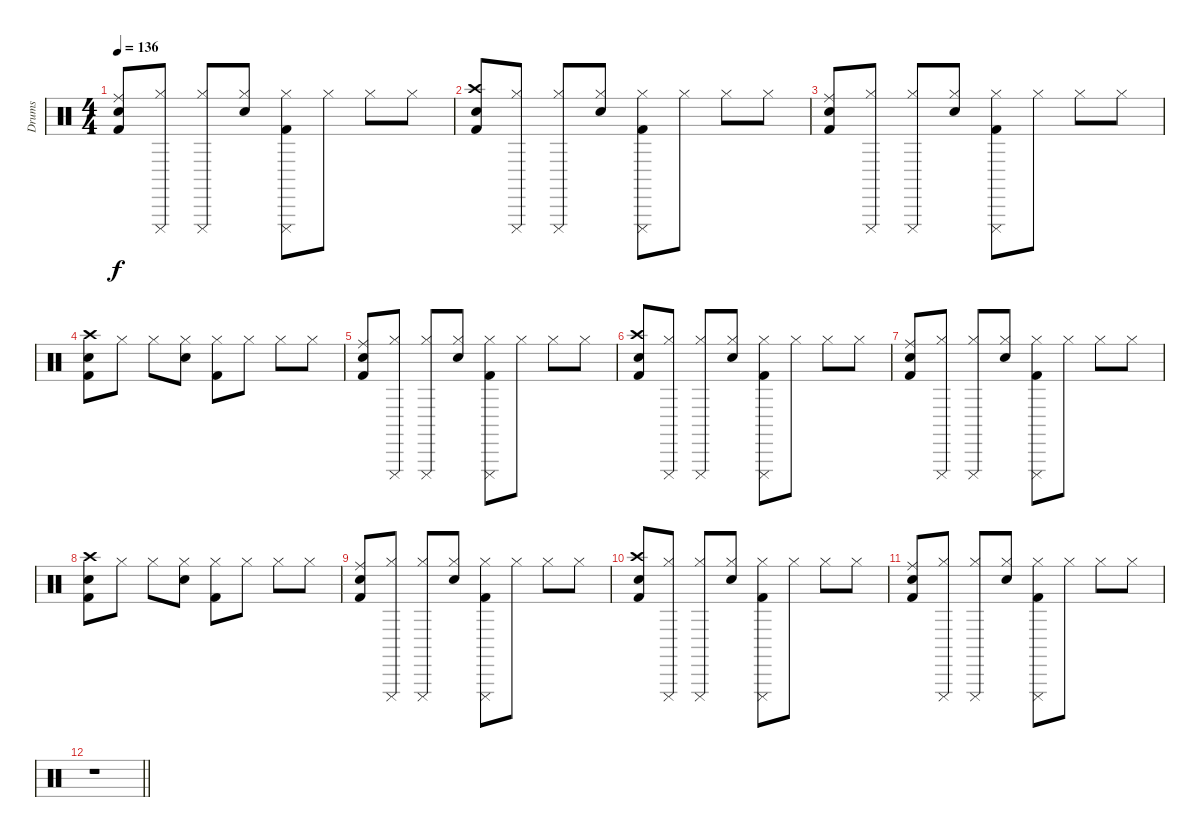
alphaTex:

\track ("Drums" "Drums") {instrument percussion}
\staff {score}
\articulation defaults
\ts (4 4)
\tempo 136
\clef neutral
\ks c
("Ride (middle)" "Electric Snare (hit)" "Kick (hit) 2").8{dy f} ("Cuica (mute)" "Hi-Hat (closed)").8 ("Cuica (mute)" "Hi-Hat (closed)").8 ("Hi-Hat (closed)" "Electric Snare (hit)").8 ("Cuica (mute)" "Hi-Hat (closed)" "Kick (hit) 2").8 "Hi-Hat (closed)".8 "Hi-Hat (closed)".8 "Hi-Hat (closed)".8 |
("Crash high (hit)" "Electric Snare (hit)" "Kick (hit) 2").8 ("Cuica (mute)" "Hi-Hat (closed)").8 ("Cuica (mute)" "Hi-Hat (closed)").8 ("Hi-Hat (closed)" "Electric Snare (hit)").8 ("Cuica (mute)" "Hi-Hat (closed)" "Kick (hit) 2").8 "Hi-Hat (closed)".8 "Hi-Hat (closed)".8 "Hi-Hat (closed)".8 |
("Ride (middle)" "Electric Snare (hit)" "Kick (hit) 2").8 ("Cuica (mute)" "Hi-Hat (closed)").8 ("Cuica (mute)" "Hi-Hat (closed)").8 ("Hi-Hat (closed)" "Electric Snare (hit)").8 ("Cuica (mute)" "Hi-Hat (closed)" "Kick (hit) 2").8 "Hi-Hat (closed)".8 "Hi-Hat (closed)".8 "Hi-Hat (closed)".8 |
("Crash high (hit)" "Electric Snare (hit)" "Kick (hit) 2").8 "Hi-Hat (closed)".8 "Hi-Hat (closed)".8 ("Hi-Hat (closed)" "Electric Snare (hit)").8 ("Hi-Hat (closed)" "Kick (hit) 2").8 "Hi-Hat (closed)".8 "Hi-Hat (closed)".8 "Hi-Hat (closed)".8 |
("Ride (middle)" "Electric Snare (hit)" "Kick (hit) 2").8 ("Cuica (mute)" "Hi-Hat (closed)").8 ("Cuica (mute)" "Hi-Hat (closed)").8 ("Hi-Hat (closed)" "Electric Snare (hit)").8 ("Cuica (mute)" "Hi-Hat (closed)" "Kick (hit) 2").8 "Hi-Hat (closed)".8 "Hi-Hat (closed)".8 "Hi-Hat (closed)".8 |
("Crash high (hit)" "Electric Snare (hit)" "Kick (hit) 2").8 ("Cuica (mute)" "Hi-Hat (closed)").8 ("Cuica (mute)" "Hi-Hat (closed)").8 ("Hi-Hat (closed)" "Electric Snare (hit)").8 ("Cuica (mute)" "Hi-Hat (closed)" "Kick (hit) 2").8 "Hi-Hat (closed)".8 "Hi-Hat (closed)".8 "Hi-Hat (closed)".8 |
("Ride (middle)" "Electric Snare (hit)" "Kick (hit) 2").8 ("Cuica (mute)" "Hi-Hat (closed)").8 ("Cuica (mute)" "Hi-Hat (closed)").8 ("Hi-Hat (closed)" "Electric Snare (hit)").8 ("Cuica (mute)" "Hi-Hat (closed)" "Kick (hit) 2").8 "Hi-Hat (closed)".8 "Hi-Hat (closed)".8 "Hi-Hat (closed)".8 |
("Crash high (hit)" "Electric Snare (hit)" "Kick (hit) 2").8 "Hi-Hat (closed)".8 "Hi-Hat (closed)".8 ("Hi-Hat (closed)" "Electric Snare (hit)").8 ("Hi-Hat (closed)" "Kick (hit) 2").8 "Hi-Hat (closed)".8 "Hi-Hat (closed)".8 "Hi-Hat (closed)".8 |
("Ride (middle)" "Electric Snare (hit)" "Kick (hit) 2").8 ("Cuica (mute)" "Hi-Hat (closed)").8 ("Cuica (mute)" "Hi-Hat (closed)").8 ("Hi-Hat (closed)" "Electric Snare (hit)").8 ("Cuica (mute)" "Hi-Hat (closed)" "Kick (hit) 2").8 "Hi-Hat (closed)".8 "Hi-Hat (closed)".8 "Hi-Hat (closed)".8 |
("Crash high (hit)" "Electric Snare (hit)" "Kick (hit) 2").8 ("Cuica (mute)" "Hi-Hat (closed)").8 ("Cuica (mute)" "Hi-Hat (closed)").8 ("Hi-Hat (closed)" "Electric Snare (hit)").8 ("Cuica (mute)" "Hi-Hat (closed)" "Kick (hit) 2").8 "Hi-Hat (closed)".8 "Hi-Hat (closed)".8 "Hi-Hat (closed)".8 |
("Ride (middle)" "Electric Snare (hit)" "Kick (hit) 2").8 ("Cuica (mute)" "Hi-Hat (closed)").8 ("Cuica (mute)" "Hi-Hat (closed)").8 ("Hi-Hat (closed)" "Electric Snare (hit)").8 ("Cuica (mute)" "Hi-Hat (closed)" "Kick (hit) 2").8 "Hi-Hat (closed)".8 "Hi-Hat (closed)".8 "Hi-Hat (closed)".8 |
\barLineRight lightlight
r.1
